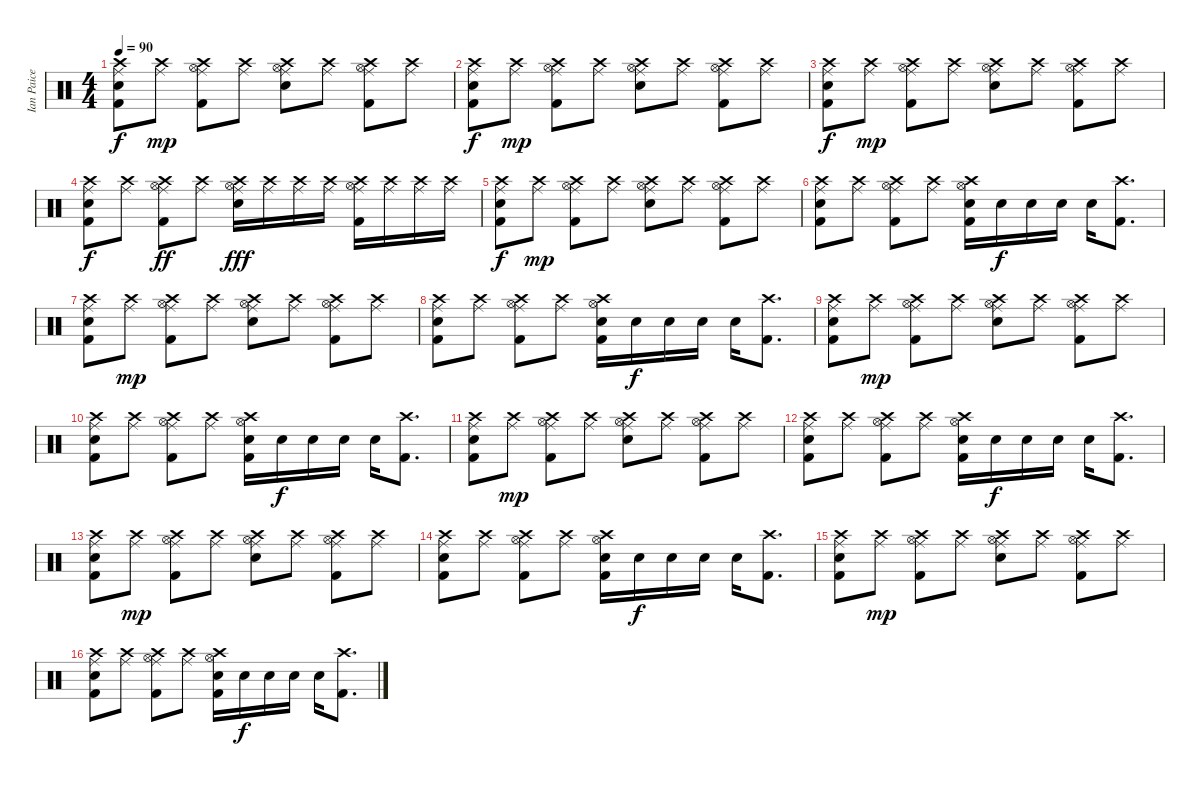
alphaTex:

\track ("Ian Paice (Percusion)" "Ian Paice ") {instrument percussion}
\staff {score}
\articulation defaults
\ts (4 4)
\tempo 90
\clef neutral
\ks c
("Kick (hit) 2" "Crash high (hit)" "Ride (middle)" "Electric Snare (hit)").8{dy f} ("Crash high (hit)" "Ride (middle)").8{dy mp} ("Hi-Hat (open)" "Crash high (hit)" "Ride (middle)" "Kick (hit) 2").8 ("Crash high (hit)" "Ride (middle)").8 ("Hi-Hat (open)" "Crash high (hit)" "Ride (middle)" "Electric Snare (hit)").8 ("Crash high (hit)" "Ride (middle)").8 ("Hi-Hat (open)" "Crash high (hit)" "Ride (middle)" "Kick (hit) 2").8 ("Crash high (hit)" "Ride (middle)").8 |
("Kick (hit) 2" "Crash high (hit)" "Ride (middle)" "Electric Snare (hit)").8{dy f} ("Crash high (hit)" "Ride (middle)").8{dy mp} ("Hi-Hat (open)" "Crash high (hit)" "Ride (middle)" "Kick (hit) 2").8 ("Crash high (hit)" "Ride (middle)").8 ("Hi-Hat (open)" "Crash high (hit)" "Ride (middle)" "Electric Snare (hit)").8 ("Crash high (hit)" "Ride (middle)").8 ("Hi-Hat (open)" "Crash high (hit)" "Ride (middle)" "Kick (hit) 2").8 ("Crash high (hit)" "Ride (middle)").8 |
("Kick (hit) 2" "Crash high (hit)" "Ride (middle)" "Electric Snare (hit)").8{dy f} ("Crash high (hit)" "Ride (middle)").8{dy mp} ("Hi-Hat (open)" "Crash high (hit)" "Ride (middle)" "Kick (hit) 2").8 ("Crash high (hit)" "Ride (middle)").8 ("Hi-Hat (open)" "Crash high (hit)" "Ride (middle)" "Electric Snare (hit)").8 ("Crash high (hit)" "Ride (middle)").8 ("Hi-Hat (open)" "Crash high (hit)" "Ride (middle)" "Kick (hit) 2").8 ("Crash high (hit)" "Ride (middle)").8 |
("Kick (hit) 2" "Crash high (hit)" "Ride (middle)" "Electric Snare (hit)").8{dy f} ("Crash high (hit)" "Ride (middle)").8 ("Hi-Hat (open)" "Crash high (hit)" "Ride (middle)" "Kick (hit) 2").8{dy ff} ("Crash high (hit)" "Ride (middle)").8 ("Hi-Hat (open)" "Crash high (hit)" "Ride (middle)" "Electric Snare (hit)").16{dy fff} ("Crash high (hit)" "Ride (middle)").16 ("Crash high (hit)" "Ride (middle)").16 ("Crash high (hit)" "Ride (middle)").16 ("Hi-Hat (open)" "Crash high (hit)" "Ride (middle)" "Kick (hit) 2").16 ("Crash high (hit)" "Ride (middle)").16 ("Crash high (hit)" "Ride (middle)").16 ("Crash high (hit)" "Ride (middle)").16 |
("Kick (hit) 2" "Crash high (hit)" "Ride (middle)" "Electric Snare (hit)").8{dy f} ("Crash high (hit)" "Ride (middle)").8{dy mp} ("Hi-Hat (open)" "Crash high (hit)" "Ride (middle)" "Kick (hit) 2").8 ("Crash high (hit)" "Ride (middle)").8 ("Hi-Hat (open)" "Crash high (hit)" "Ride (middle)" "Electric Snare (hit)").8 ("Crash high (hit)" "Ride (middle)").8 ("Hi-Hat (open)" "Crash high (hit)" "Ride (middle)" "Kick (hit) 2").8 ("Crash high (hit)" "Ride (middle)").8 |
("Kick (hit) 2" "Crash high (hit)" "Ride (middle)" "Electric Snare (hit)").8 ("Crash high (hit)" "Ride (middle)").8 ("Hi-Hat (open)" "Crash high (hit)" "Ride (middle)" "Kick (hit) 2").8 ("Crash high (hit)" "Ride (middle)").8 ("Crash high (hit)" "Hi-Hat (open)" "Kick (hit) 2" "Electric Snare (hit)").16 "Electric Snare (hit)".16{dy f} "Electric Snare (hit)".16 "Electric Snare (hit)".16 "Electric Snare (hit)".16 ("Crash high (hit)" "Kick (hit) 2").8{d} |
("Kick (hit) 2" "Crash high (hit)" "Ride (middle)" "Electric Snare (hit)").8 ("Crash high (hit)" "Ride (middle)").8{dy mp} ("Hi-Hat (open)" "Crash high (hit)" "Ride (middle)" "Kick (hit) 2").8 ("Crash high (hit)" "Ride (middle)").8 ("Hi-Hat (open)" "Crash high (hit)" "Ride (middle)" "Electric Snare (hit)").8 ("Crash high (hit)" "Ride (middle)").8 ("Hi-Hat (open)" "Crash high (hit)" "Ride (middle)" "Kick (hit) 2").8 ("Crash high (hit)" "Ride (middle)").8 |
("Kick (hit) 2" "Crash high (hit)" "Ride (middle)" "Electric Snare (hit)").8 ("Crash high (hit)" "Ride (middle)").8 ("Hi-Hat (open)" "Crash high (hit)" "Ride (middle)" "Kick (hit) 2").8 ("Crash high (hit)" "Ride (middle)").8 ("Crash high (hit)" "Hi-Hat (open)" "Kick (hit) 2" "Electric Snare (hit)").16 "Electric Snare (hit)".16{dy f} "Electric Snare (hit)".16 "Electric Snare (hit)".16 "Electric Snare (hit)".16 ("Crash high (hit)" "Kick (hit) 2").8{d} |
("Kick (hit) 2" "Crash high (hit)" "Ride (middle)" "Electric Snare (hit)").8 ("Crash high (hit)" "Ride (middle)").8{dy mp} ("Hi-Hat (open)" "Crash high (hit)" "Ride (middle)" "Kick (hit) 2").8 ("Crash high (hit)" "Ride (middle)").8 ("Hi-Hat (open)" "Crash high (hit)" "Ride (middle)" "Electric Snare (hit)").8 ("Crash high (hit)" "Ride (middle)").8 ("Hi-Hat (open)" "Crash high (hit)" "Ride (middle)" "Kick (hit) 2").8 ("Crash high (hit)" "Ride (middle)").8 |
("Kick (hit) 2" "Crash high (hit)" "Ride (middle)" "Electric Snare (hit)").8 ("Crash high (hit)" "Ride (middle)").8 ("Hi-Hat (open)" "Crash high (hit)" "Ride (middle)" "Kick (hit) 2").8 ("Crash high (hit)" "Ride (middle)").8 ("Crash high (hit)" "Hi-Hat (open)" "Kick (hit) 2" "Electric Snare (hit)").16 "Electric Snare (hit)".16{dy f} "Electric Snare (hit)".16 "Electric Snare (hit)".16 "Electric Snare (hit)".16 ("Crash high (hit)" "Kick (hit) 2").8{d} |
("Kick (hit) 2" "Crash high (hit)" "Ride (middle)" "Electric Snare (hit)").8 ("Crash high (hit)" "Ride (middle)").8{dy mp} ("Hi-Hat (open)" "Crash high (hit)" "Ride (middle)" "Kick (hit) 2").8 ("Crash high (hit)" "Ride (middle)").8 ("Hi-Hat (open)" "Crash high (hit)" "Ride (middle)" "Electric Snare (hit)").8 ("Crash high (hit)" "Ride (middle)").8 ("Hi-Hat (open)" "Crash high (hit)" "Ride (middle)" "Kick (hit) 2").8 ("Crash high (hit)" "Ride (middle)").8 |
("Kick (hit) 2" "Crash high (hit)" "Ride (middle)" "Electric Snare (hit)").8 ("Crash high (hit)" "Ride (middle)").8 ("Hi-Hat (open)" "Crash high (hit)" "Ride (middle)" "Kick (hit) 2").8 ("Crash high (hit)" "Ride (middle)").8 ("Crash high (hit)" "Hi-Hat (open)" "Kick (hit) 2" "Electric Snare (hit)").16 "Electric Snare (hit)".16{dy f} "Electric Snare (hit)".16 "Electric Snare (hit)".16 "Electric Snare (hit)".16 ("Crash high (hit)" "Kick (hit) 2").8{d} |
("Kick (hit) 2" "Crash high (hit)" "Ride (middle)" "Electric Snare (hit)").8 ("Crash high (hit)" "Ride (middle)").8{dy mp} ("Hi-Hat (open)" "Crash high (hit)" "Ride (middle)" "Kick (hit) 2").8 ("Crash high (hit)" "Ride (middle)").8 ("Hi-Hat (open)" "Crash high (hit)" "Ride (middle)" "Electric Snare (hit)").8 ("Crash high (hit)" "Ride (middle)").8 ("Hi-Hat (open)" "Crash high (hit)" "Ride (middle)" "Kick (hit) 2").8 ("Crash high (hit)" "Ride (middle)").8 |
("Kick (hit) 2" "Crash high (hit)" "Ride (middle)" "Electric Snare (hit)").8 ("Crash high (hit)" "Ride (middle)").8 ("Hi-Hat (open)" "Crash high (hit)" "Ride (middle)" "Kick (hit) 2").8 ("Crash high (hit)" "Ride (middle)").8 ("Crash high (hit)" "Hi-Hat (open)" "Kick (hit) 2" "Electric Snare (hit)").16 "Electric Snare (hit)".16{dy f} "Electric Snare (hit)".16 "Electric Snare (hit)".16 "Electric Snare (hit)".16 ("Crash high (hit)" "Kick (hit) 2").8{d} |
("Kick (hit) 2" "Crash high (hit)" "Ride (middle)" "Electric Snare (hit)").8 ("Crash high (hit)" "Ride (middle)").8{dy mp} ("Hi-Hat (open)" "Crash high (hit)" "Ride (middle)" "Kick (hit) 2").8 ("Crash high (hit)" "Ride (middle)").8 ("Hi-Hat (open)" "Crash high (hit)" "Ride (middle)" "Electric Snare (hit)").8 ("Crash high (hit)" "Ride (middle)").8 ("Hi-Hat (open)" "Crash high (hit)" "Ride (middle)" "Kick (hit) 2").8 ("Crash high (hit)" "Ride (middle)").8 |
("Kick (hit) 2" "Crash high (hit)" "Ride (middle)" "Electric Snare (hit)").8 ("Crash high (hit)" "Ride (middle)").8 ("Hi-Hat (open)" "Crash high (hit)" "Ride (middle)" "Kick (hit) 2").8 ("Crash high (hit)" "Ride (middle)").8 ("Crash high (hit)" "Hi-Hat (open)" "Kick (hit) 2" "Electric Snare (hit)").16 "Electric Snare (hit)".16{dy f} "Electric Snare (hit)".16 "Electric Snare (hit)".16 "Electric Snare (hit)".16 ("Crash high (hit)" "Kick (hit) 2").8{d}
